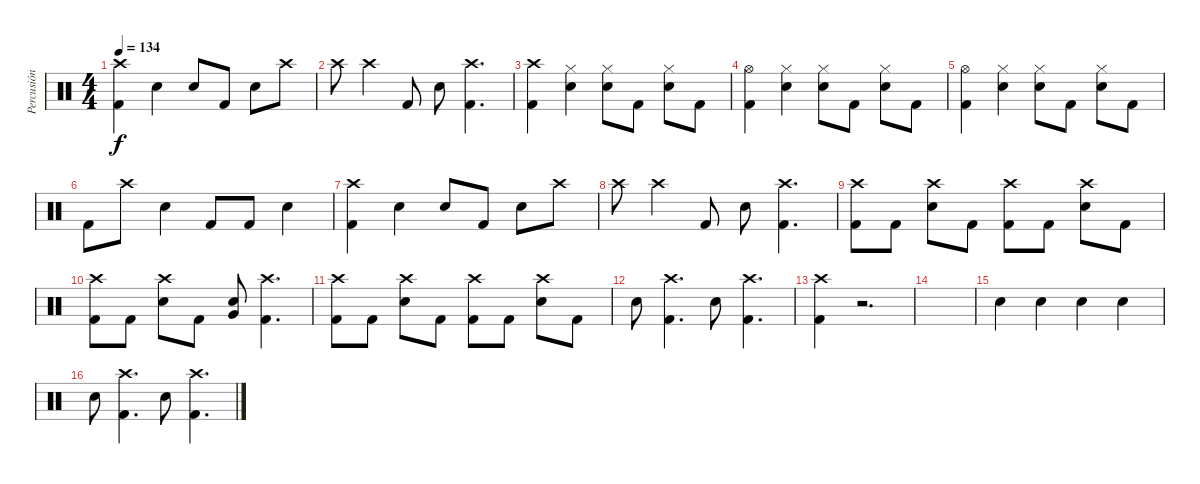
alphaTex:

\track ("Percusión" "Percusión") {instrument percussion}
\staff {score}
\articulation defaults
\ts (4 4)
\tempo 134
\clef neutral
\ks c
("Crash high (hit)" "Kick (hit) 2").4{dy f} "Snare (hit) 2".4 "Snare (hit) 2".8 "Kick (hit) 2".8 "Snare (hit) 2".8 "Crash high (hit)".8 |
"Crash high (hit)".8 "Crash high (hit)".4 "Kick (hit) 2".8 "Snare (hit) 2".8 ("Crash high (hit)" "Kick (hit) 2").4{d} |
("Crash high (hit)" "Kick (hit) 2").4 ("Hi-Hat (closed)" "Snare (hit) 2").4 ("Hi-Hat (closed)" "Snare (hit) 2").8 "Kick (hit) 2".8 ("Hi-Hat (closed)" "Snare (hit) 2").8 "Kick (hit) 2".8 |
("Hi-Hat (open)" "Kick (hit) 2").4 ("Hi-Hat (closed)" "Snare (hit) 2").4 ("Hi-Hat (closed)" "Snare (hit) 2").8 "Kick (hit) 2".8 ("Hi-Hat (closed)" "Snare (hit) 2").8 "Kick (hit) 2".8 |
("Hi-Hat (open)" "Kick (hit) 2").4 ("Hi-Hat (closed)" "Snare (hit) 2").4 ("Hi-Hat (closed)" "Snare (hit) 2").8 "Kick (hit) 2".8 ("Hi-Hat (closed)" "Snare (hit) 2").8 "Kick (hit) 2".8 |
"Kick (hit) 2".8 "Crash high (hit)".8 "Snare (hit) 2".4 "Kick (hit) 2".8 "Kick (hit) 2".8 "Snare (hit) 2".4 |
("Crash high (hit)" "Kick (hit) 2").4 "Snare (hit) 2".4 "Snare (hit) 2".8 "Kick (hit) 2".8 "Snare (hit) 2".8 "Crash high (hit)".8 |
"Crash high (hit)".8 "Crash high (hit)".4 "Kick (hit) 2".8 "Snare (hit) 2".8 ("Crash high (hit)" "Kick (hit) 2").4{d} |
("Crash high (hit)" "Kick (hit) 2").8 "Kick (hit) 2".8 ("Crash high (hit)" "Snare (hit) 2").8 "Kick (hit) 2".8 ("Crash high (hit)" "Kick (hit) 2").8 "Kick (hit) 2".8 ("Crash high (hit)" "Snare (hit) 2").8 "Kick (hit) 2".8 |
("Crash high (hit)" "Kick (hit) 2").8 "Kick (hit) 2".8 ("Crash high (hit)" "Snare (hit) 2").8 "Kick (hit) 2".8 ("Snare (hit) 2" "Very Low Tom (hit)").8 ("Crash high (hit)" "Kick (hit) 2").4{d} |
("Crash high (hit)" "Kick (hit) 2").8 "Kick (hit) 2".8 ("Crash high (hit)" "Snare (hit) 2").8 "Kick (hit) 2".8 ("Crash high (hit)" "Kick (hit) 2").8 "Kick (hit) 2".8 ("Crash high (hit)" "Snare (hit) 2").8 "Kick (hit) 2".8 |
"Snare (hit) 2".8 ("Crash high (hit)" "Kick (hit) 2").4{d} "Snare (hit) 2".8 ("Crash high (hit)" "Kick (hit) 2").4{d} |
("Crash high (hit)" "Kick (hit) 2").4 r.2{d} |
|
"Snare (hit) 2".4 "Snare (hit) 2".4 "Snare (hit) 2".4 "Snare (hit) 2".4 |
"Snare (hit) 2".8 ("Crash high (hit)" "Kick (hit) 2").4{d} "Snare (hit) 2".8 ("Crash high (hit)" "Kick (hit) 2").4{d}
